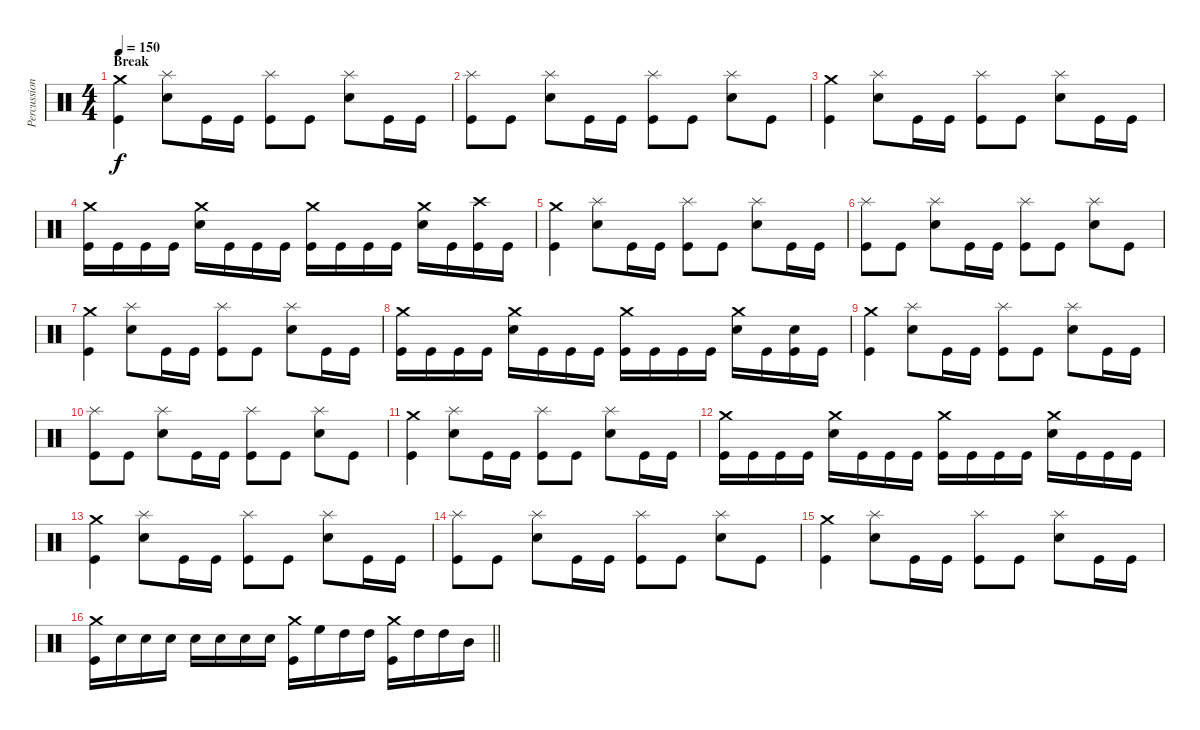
\track ("Percussion" "Percussion") {instrument percussion}
\staff {score}
\articulation defaults
\ts (4 4)
\section ("" "Break")
\tempo 150
\clef neutral
\ks c
("Crash medium (hit)" "Kick (hit)").4{dy f} ("Splash (hit)" "Snare (hit) 2").8 "Kick (hit)".16 "Kick (hit)".16 ("Splash (hit)" "Kick (hit)").8 "Kick (hit)".8 ("Splash (hit)" "Snare (hit) 2").8 "Kick (hit)".16 "Kick (hit)".16 |
("Splash (hit)" "Kick (hit)").8 "Kick (hit)".8 ("Splash (hit)" "Snare (hit) 2").8 "Kick (hit)".16 "Kick (hit)".16 ("Splash (hit)" "Kick (hit)").8 "Kick (hit)".8 ("Splash (hit)" "Snare (hit) 2").8 "Kick (hit)".8 |
("Crash medium (hit)" "Kick (hit)").4 ("Splash (hit)" "Snare (hit) 2").8 "Kick (hit)".16 "Kick (hit)".16 ("Splash (hit)" "Kick (hit)").8 "Kick (hit)".8 ("Splash (hit)" "Snare (hit) 2").8 "Kick (hit)".16 "Kick (hit)".16 |
("Crash medium (hit)" "Kick (hit)").16 "Kick (hit)".16 "Kick (hit)".16 "Kick (hit)".16 ("Crash medium (hit)" "Snare (hit) 2").16 "Kick (hit)".16 "Kick (hit)".16 "Kick (hit)".16 ("Crash medium (hit)" "Kick (hit)").16 "Kick (hit)".16 "Kick (hit)".16 "Kick (hit)".16 ("Crash medium (hit)" "Snare (hit) 2").16 "Kick (hit)".16 ("Crash high (hit)" "Kick (hit)").16 "Kick (hit)".16 |
("Crash medium (hit)" "Kick (hit)").4 ("Splash (hit)" "Snare (hit) 2").8 "Kick (hit)".16 "Kick (hit)".16 ("Splash (hit)" "Kick (hit)").8 "Kick (hit)".8 ("Splash (hit)" "Snare (hit) 2").8 "Kick (hit)".16 "Kick (hit)".16 |
("Splash (hit)" "Kick (hit)").8 "Kick (hit)".8 ("Splash (hit)" "Snare (hit) 2").8 "Kick (hit)".16 "Kick (hit)".16 ("Splash (hit)" "Kick (hit)").8 "Kick (hit)".8 ("Splash (hit)" "Snare (hit) 2").8 "Kick (hit)".8 |
("Crash medium (hit)" "Kick (hit)").4 ("Splash (hit)" "Snare (hit) 2").8 "Kick (hit)".16 "Kick (hit)".16 ("Splash (hit)" "Kick (hit)").8 "Kick (hit)".8 ("Splash (hit)" "Snare (hit) 2").8 "Kick (hit)".16 "Kick (hit)".16 |
("Crash medium (hit)" "Kick (hit)").16 "Kick (hit)".16 "Kick (hit)".16 "Kick (hit)".16 ("Crash medium (hit)" "Snare (hit) 2").16 "Kick (hit)".16 "Kick (hit)".16 "Kick (hit)".16 ("Crash medium (hit)" "Kick (hit)").16 "Kick (hit)".16 "Kick (hit)".16 "Kick (hit)".16 ("Crash medium (hit)" "Snare (hit) 2").16 "Kick (hit)".16 ("Snare (hit) 2" "Kick (hit)").16 "Kick (hit)".16 |
("Crash medium (hit)" "Kick (hit)").4 ("Splash (hit)" "Snare (hit) 2").8 "Kick (hit)".16 "Kick (hit)".16 ("Splash (hit)" "Kick (hit)").8 "Kick (hit)".8 ("Splash (hit)" "Snare (hit) 2").8 "Kick (hit)".16 "Kick (hit)".16 |
("Splash (hit)" "Kick (hit)").8 "Kick (hit)".8 ("Splash (hit)" "Snare (hit) 2").8 "Kick (hit)".16 "Kick (hit)".16 ("Splash (hit)" "Kick (hit)").8 "Kick (hit)".8 ("Splash (hit)" "Snare (hit) 2").8 "Kick (hit)".8 |
("Crash medium (hit)" "Kick (hit)").4 ("Splash (hit)" "Snare (hit) 2").8 "Kick (hit)".16 "Kick (hit)".16 ("Splash (hit)" "Kick (hit)").8 "Kick (hit)".8 ("Splash (hit)" "Snare (hit) 2").8 "Kick (hit)".16 "Kick (hit)".16 |
("Crash medium (hit)" "Kick (hit)").16 "Kick (hit)".16 "Kick (hit)".16 "Kick (hit)".16 ("Crash medium (hit)" "Snare (hit) 2").16 "Kick (hit)".16 "Kick (hit)".16 "Kick (hit)".16 ("Crash medium (hit)" "Kick (hit)").16 "Kick (hit)".16 "Kick (hit)".16 "Kick (hit)".16 ("Crash medium (hit)" "Snare (hit) 2").16 "Kick (hit)".16 "Kick (hit)".16 "Kick (hit)".16 |
("Crash medium (hit)" "Kick (hit)").4 ("Splash (hit)" "Snare (hit) 2").8 "Kick (hit)".16 "Kick (hit)".16 ("Splash (hit)" "Kick (hit)").8 "Kick (hit)".8 ("Splash (hit)" "Snare (hit) 2").8 "Kick (hit)".16 "Kick (hit)".16 |
("Splash (hit)" "Kick (hit)").8 "Kick (hit)".8 ("Splash (hit)" "Snare (hit) 2").8 "Kick (hit)".16 "Kick (hit)".16 ("Splash (hit)" "Kick (hit)").8 "Kick (hit)".8 ("Splash (hit)" "Snare (hit) 2").8 "Kick (hit)".8 |
("Crash medium (hit)" "Kick (hit)").4 ("Splash (hit)" "Snare (hit) 2").8 "Kick (hit)".16 "Kick (hit)".16 ("Splash (hit)" "Kick (hit)").8 "Kick (hit)".8 ("Splash (hit)" "Snare (hit) 2").8 "Kick (hit)".16 "Kick (hit)".16 |
\barLineRight lightlight
("Crash medium (hit)" "Kick (hit)").16 "Snare (hit) 2".16 "Snare (hit) 2".16 "Snare (hit) 2".16 "Snare (hit) 2".16 "Snare (hit) 2".16 "Snare (hit) 2".16 "Snare (hit) 2".16 ("Crash medium (hit)" "Kick (hit)").16 "High Floor Tom (hit)".16 "High Tom (hit)".16 "High Tom (hit)".16 ("Crash medium (hit)" "Kick (hit)").16 "High Tom (hit)".16 "High Tom (hit)".16 "Mid Tom (hit)".16
